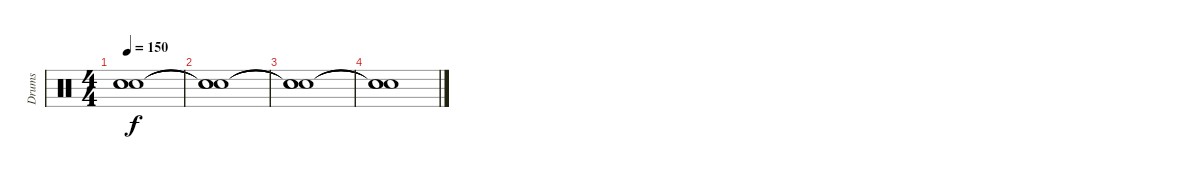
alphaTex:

\track ("Drums" "Drums") {instrument percussion}
\staff {score}
\articulation defaults
\ts (4 4)
\tempo 150
\clef neutral
\ks c
("Snare (hit)"{t} "Snare (hit)"{t} "Snare (hit)"{t}).1{dy f} |
("Snare (hit)"{t} "Snare (hit)"{t} "Snare (hit)"{t}).1 |
("Snare (hit)"{t} "Snare (hit)"{t} "Snare (hit)"{t}).1 |
("Snare (hit)"{t} "Snare (hit)"{t} "Snare (hit)"{t}).1
